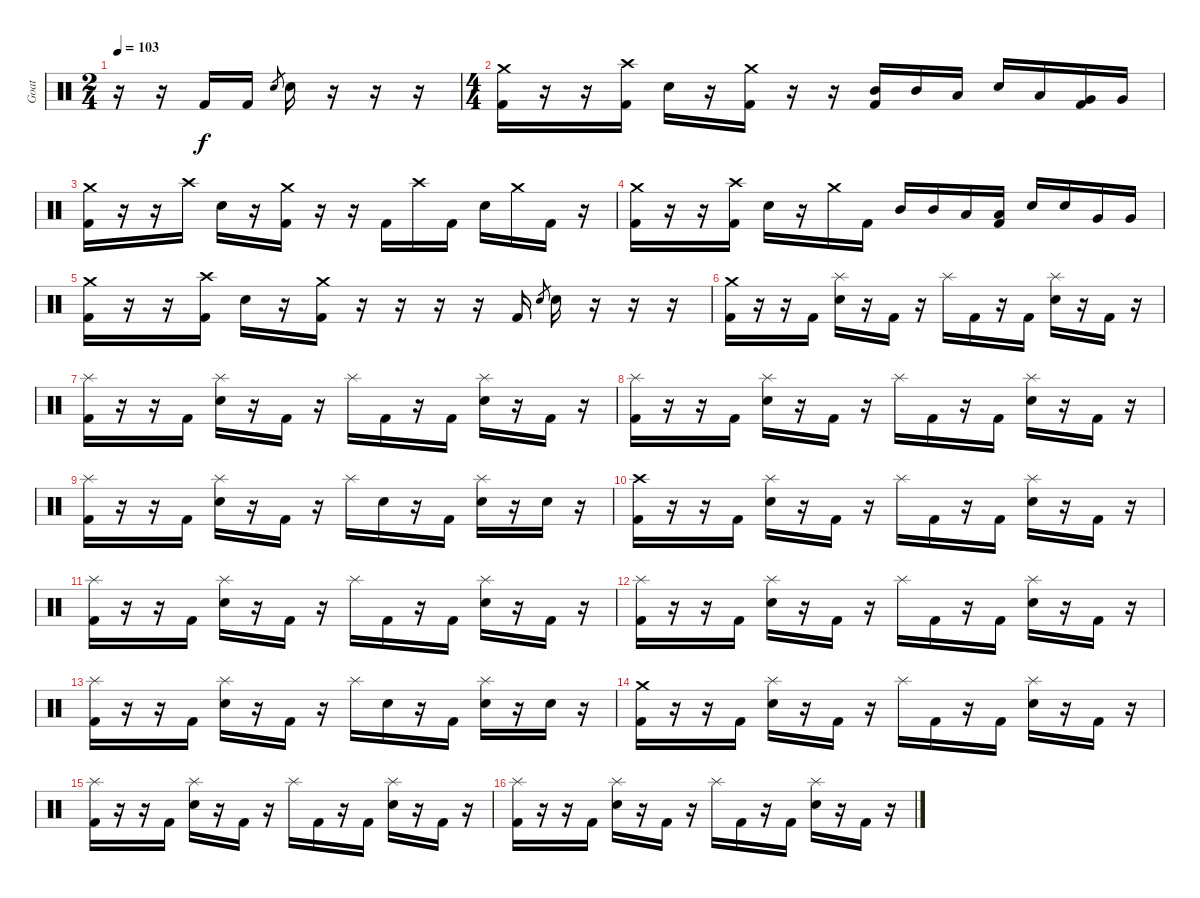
\track ("Goat" "Goat") {instrument percussion}
\staff {score}
\articulation defaults
\ts (2 4)
\tempo 103
\clef neutral
\ks c
r.16{dy f} r.16 "Kick (hit) 2".16 "Kick (hit) 2".16 "Electric Snare (hit)".8{gr} "Electric Snare (hit)".16 r.16 r.16 r.16 |
\ts (4 4)
("Crash medium (hit)" "Kick (hit) 2").16 r.16 r.16 ("Crash high (hit)" "Kick (hit) 2").16 "Electric Snare (hit)".16 r.16 ("Crash medium (hit)" "Kick (hit) 2").16 r.16 r.16 ("Mid Tom (hit)" "Kick (hit) 2").16 "Mid Tom (hit)".16 "Low Tom (hit)".16 "Electric Snare (hit)".16 "Low Tom (hit)".16 ("Very Low Tom (hit)" "Kick (hit) 2").16 "Very Low Tom (hit)".16 |
("Crash medium (hit)" "Kick (hit) 2").16 r.16 r.16 "Crash high (hit)".16 "Electric Snare (hit)".16 r.16 ("Crash medium (hit)" "Kick (hit) 2").16 r.16 r.16 "Kick (hit) 2".16 "Crash high (hit)".16 "Kick (hit) 2".16 "Electric Snare (hit)".16 "Crash medium (hit)".16 "Kick (hit) 2".16 r.16 |
("Crash medium (hit)" "Kick (hit) 2").16 r.16 r.16 ("Crash high (hit)" "Kick (hit) 2").16 "Electric Snare (hit)".16 r.16 "Crash medium (hit)".16 "Kick (hit) 2".16 "Mid Tom (hit)".16 "Mid Tom (hit)".16 "Low Tom (hit)".16 ("Low Tom (hit)" "Kick (hit) 2").16 "Electric Snare (hit)".16 "Electric Snare (hit)".16 "Very Low Tom (hit)".16 "Very Low Tom (hit)".16 |
("Crash medium (hit)" "Kick (hit) 2").16 r.16 r.16 ("Crash high (hit)" "Kick (hit) 2").16 "Electric Snare (hit)".16 r.16 ("Crash medium (hit)" "Kick (hit) 2").16 r.16 r.16 r.16 r.16 "Kick (hit) 2".16 "Electric Snare (hit)".8{gr} "Electric Snare (hit)".16 r.16 r.16 r.16 |
("Crash medium (hit)" "Kick (hit) 2").16 r.16 r.16 "Kick (hit) 2".16 ("Splash (hit)" "Electric Snare (hit)").16 r.16 "Kick (hit) 2".16 r.16 "Splash (hit)".16 "Kick (hit) 2".16 r.16 "Kick (hit) 2".16 ("Splash (hit)" "Electric Snare (hit)").16 r.16 "Kick (hit) 2".16 r.16 |
("Splash (hit)" "Kick (hit) 2").16 r.16 r.16 "Kick (hit) 2".16 ("Splash (hit)" "Electric Snare (hit)").16 r.16 "Kick (hit) 2".16 r.16 "Splash (hit)".16 "Kick (hit) 2".16 r.16 "Kick (hit) 2".16 ("Splash (hit)" "Electric Snare (hit)").16 r.16 "Kick (hit) 2".16 r.16 |
("Splash (hit)" "Kick (hit) 2").16 r.16 r.16 "Kick (hit) 2".16 ("Splash (hit)" "Electric Snare (hit)").16 r.16 "Kick (hit) 2".16 r.16 "Splash (hit)".16 "Kick (hit) 2".16 r.16 "Kick (hit) 2".16 ("Splash (hit)" "Electric Snare (hit)").16 r.16 "Kick (hit) 2".16 r.16 |
("Splash (hit)" "Kick (hit) 2").16 r.16 r.16 "Kick (hit) 2".16 ("Splash (hit)" "Electric Snare (hit)").16 r.16 "Kick (hit) 2".16 r.16 "Splash (hit)".16 "Electric Snare (hit)".16 r.16 "Kick (hit) 2".16 ("Splash (hit)" "Electric Snare (hit)").16 r.16 "Electric Snare (hit)".16 r.16 |
("Crash high (hit)" "Kick (hit) 2").16 r.16 r.16 "Kick (hit) 2".16 ("Splash (hit)" "Electric Snare (hit)").16 r.16 "Kick (hit) 2".16 r.16 "Splash (hit)".16 "Kick (hit) 2".16 r.16 "Kick (hit) 2".16 ("Splash (hit)" "Electric Snare (hit)").16 r.16 "Kick (hit) 2".16 r.16 |
("Splash (hit)" "Kick (hit) 2").16 r.16 r.16 "Kick (hit) 2".16 ("Splash (hit)" "Electric Snare (hit)").16 r.16 "Kick (hit) 2".16 r.16 "Splash (hit)".16 "Kick (hit) 2".16 r.16 "Kick (hit) 2".16 ("Splash (hit)" "Electric Snare (hit)").16 r.16 "Kick (hit) 2".16 r.16 |
("Splash (hit)" "Kick (hit) 2").16 r.16 r.16 "Kick (hit) 2".16 ("Splash (hit)" "Electric Snare (hit)").16 r.16 "Kick (hit) 2".16 r.16 "Splash (hit)".16 "Kick (hit) 2".16 r.16 "Kick (hit) 2".16 ("Splash (hit)" "Electric Snare (hit)").16 r.16 "Kick (hit) 2".16 r.16 |
("Splash (hit)" "Kick (hit) 2").16 r.16 r.16 "Kick (hit) 2".16 ("Splash (hit)" "Electric Snare (hit)").16 r.16 "Kick (hit) 2".16 r.16 "Splash (hit)".16 "Electric Snare (hit)".16 r.16 "Kick (hit) 2".16 ("Splash (hit)" "Electric Snare (hit)").16 r.16 "Electric Snare (hit)".16 r.16 |
("Crash medium (hit)" "Kick (hit) 2").16 r.16 r.16 "Kick (hit) 2".16 ("Splash (hit)" "Electric Snare (hit)").16 r.16 "Kick (hit) 2".16 r.16 "Splash (hit)".16 "Kick (hit) 2".16 r.16 "Kick (hit) 2".16 ("Splash (hit)" "Electric Snare (hit)").16 r.16 "Kick (hit) 2".16 r.16 |
("Splash (hit)" "Kick (hit) 2").16 r.16 r.16 "Kick (hit) 2".16 ("Splash (hit)" "Electric Snare (hit)").16 r.16 "Kick (hit) 2".16 r.16 "Splash (hit)".16 "Kick (hit) 2".16 r.16 "Kick (hit) 2".16 ("Splash (hit)" "Electric Snare (hit)").16 r.16 "Kick (hit) 2".16 r.16 |
("Splash (hit)" "Kick (hit) 2").16 r.16 r.16 "Kick (hit) 2".16 ("Splash (hit)" "Electric Snare (hit)").16 r.16 "Kick (hit) 2".16 r.16 "Splash (hit)".16 "Kick (hit) 2".16 r.16 "Kick (hit) 2".16 ("Splash (hit)" "Electric Snare (hit)").16 r.16 "Kick (hit) 2".16 r.16
